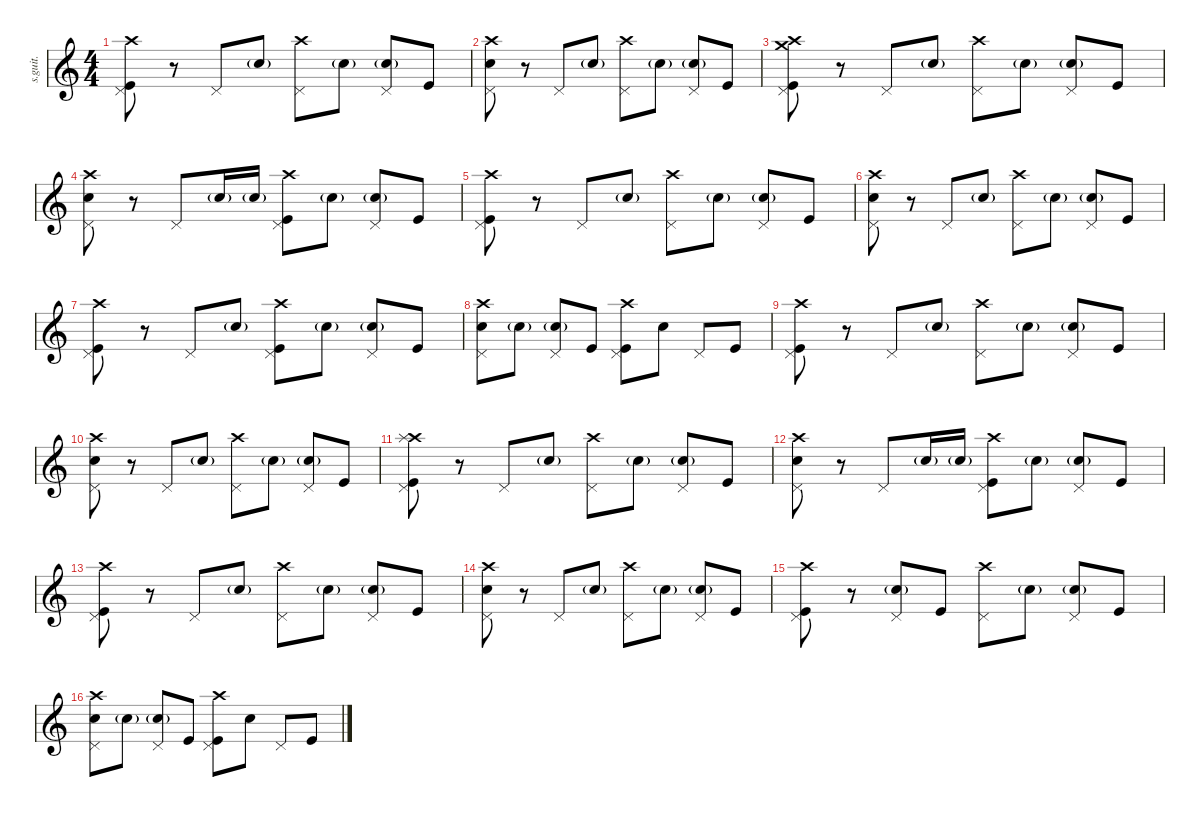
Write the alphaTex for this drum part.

\defaultSystemsLayout 4
\hideDynamics
\bracketExtendMode nobrackets
\track ("Matt Halpern" "s.guit.") {instrument percussion}
\staff {score}
\articulation defaults
\ts (4 4)
\tempo (213 hide)
\clef g2
\ks c
("Crash high (hit)" "Pedal Hi-Hat (hit)" "Kick (hit)").8{lyrics (0 "") lyrics (1 "") lyrics (2 "") lyrics (3 "") lyrics (4 "") dy mf} r.8 "Pedal Hi-Hat (hit)".8{lyrics (0 "") lyrics (1 "") lyrics (2 "") lyrics (3 "") lyrics (4 "")} "Snare (hit) 2"{g}.8{lyrics (0 "") lyrics (1 "") lyrics (2 "") lyrics (3 "") lyrics (4 "")} ("Crash high (hit)" "Pedal Hi-Hat (hit)").8{lyrics (0 "") lyrics (1 "") lyrics (2 "") lyrics (3 "") lyrics (4 "")} "Snare (hit) 2"{g}.8{lyrics (0 "") lyrics (1 "") lyrics (2 "") lyrics (3 "") lyrics (4 "")} ("Pedal Hi-Hat (hit)" "Snare (hit) 2"{g}).8{lyrics (0 "") lyrics (1 "") lyrics (2 "") lyrics (3 "") lyrics (4 "")} "Kick (hit)".8{lyrics (0 "") lyrics (1 "") lyrics (2 "") lyrics (3 "") lyrics (4 "")} |
("Crash high (hit)" "Pedal Hi-Hat (hit)" "Snare (hit) 2").8{lyrics (0 "") lyrics (1 "") lyrics (2 "") lyrics (3 "") lyrics (4 "")} r.8 "Pedal Hi-Hat (hit)".8{lyrics (0 "") lyrics (1 "") lyrics (2 "") lyrics (3 "") lyrics (4 "")} "Snare (hit) 2"{g}.8{lyrics (0 "") lyrics (1 "") lyrics (2 "") lyrics (3 "") lyrics (4 "")} ("Crash high (hit)" "Pedal Hi-Hat (hit)").8{lyrics (0 "") lyrics (1 "") lyrics (2 "") lyrics (3 "") lyrics (4 "")} "Snare (hit) 2"{g}.8{lyrics (0 "") lyrics (1 "") lyrics (2 "") lyrics (3 "") lyrics (4 "")} ("Pedal Hi-Hat (hit)" "Snare (hit) 2"{g}).8{lyrics (0 "") lyrics (1 "") lyrics (2 "") lyrics (3 "") lyrics (4 "")} "Kick (hit)".8{lyrics (0 "") lyrics (1 "") lyrics (2 "") lyrics (3 "") lyrics (4 "")} |
("Crash high (hit)" "Crash medium (hit)" "Pedal Hi-Hat (hit)" "Kick (hit)").8{lyrics (0 "") lyrics (1 "") lyrics (2 "") lyrics (3 "") lyrics (4 "")} r.8 "Pedal Hi-Hat (hit)".8{lyrics (0 "") lyrics (1 "") lyrics (2 "") lyrics (3 "") lyrics (4 "")} "Snare (hit) 2"{g}.8{lyrics (0 "") lyrics (1 "") lyrics (2 "") lyrics (3 "") lyrics (4 "")} ("Crash high (hit)" "Pedal Hi-Hat (hit)").8{lyrics (0 "") lyrics (1 "") lyrics (2 "") lyrics (3 "") lyrics (4 "")} "Snare (hit) 2"{g}.8{lyrics (0 "") lyrics (1 "") lyrics (2 "") lyrics (3 "") lyrics (4 "")} ("Pedal Hi-Hat (hit)" "Snare (hit) 2"{g}).8{lyrics (0 "") lyrics (1 "") lyrics (2 "") lyrics (3 "") lyrics (4 "")} "Kick (hit)".8{lyrics (0 "") lyrics (1 "") lyrics (2 "") lyrics (3 "") lyrics (4 "")} |
("Crash high (hit)" "Pedal Hi-Hat (hit)" "Snare (hit) 2").8{lyrics (0 "") lyrics (1 "") lyrics (2 "") lyrics (3 "") lyrics (4 "")} r.8 "Pedal Hi-Hat (hit)".8{lyrics (0 "") lyrics (1 "") lyrics (2 "") lyrics (3 "") lyrics (4 "")} "Snare (hit) 2"{g}.16{lyrics (0 "") lyrics (1 "") lyrics (2 "") lyrics (3 "") lyrics (4 "")} "Snare (hit) 2"{g}.16{lyrics (0 "") lyrics (1 "") lyrics (2 "") lyrics (3 "") lyrics (4 "")} ("Crash high (hit)" "Pedal Hi-Hat (hit)" "Kick (hit)").8{lyrics (0 "") lyrics (1 "") lyrics (2 "") lyrics (3 "") lyrics (4 "")} "Snare (hit) 2"{g}.8{lyrics (0 "") lyrics (1 "") lyrics (2 "") lyrics (3 "") lyrics (4 "")} ("Pedal Hi-Hat (hit)" "Snare (hit) 2"{g}).8{lyrics (0 "") lyrics (1 "") lyrics (2 "") lyrics (3 "") lyrics (4 "")} "Kick (hit)".8{lyrics (0 "") lyrics (1 "") lyrics (2 "") lyrics (3 "") lyrics (4 "")} |
("Crash high (hit)" "Pedal Hi-Hat (hit)" "Kick (hit)").8{lyrics (0 "") lyrics (1 "") lyrics (2 "") lyrics (3 "") lyrics (4 "")} r.8 "Pedal Hi-Hat (hit)".8{lyrics (0 "") lyrics (1 "") lyrics (2 "") lyrics (3 "") lyrics (4 "")} "Snare (hit) 2"{g}.8{lyrics (0 "") lyrics (1 "") lyrics (2 "") lyrics (3 "") lyrics (4 "")} ("Crash high (hit)" "Pedal Hi-Hat (hit)").8{lyrics (0 "") lyrics (1 "") lyrics (2 "") lyrics (3 "") lyrics (4 "")} "Snare (hit) 2"{g}.8{lyrics (0 "") lyrics (1 "") lyrics (2 "") lyrics (3 "") lyrics (4 "")} ("Pedal Hi-Hat (hit)" "Snare (hit) 2"{g}).8{lyrics (0 "") lyrics (1 "") lyrics (2 "") lyrics (3 "") lyrics (4 "")} "Kick (hit)".8{lyrics (0 "") lyrics (1 "") lyrics (2 "") lyrics (3 "") lyrics (4 "")} |
("Crash high (hit)" "Pedal Hi-Hat (hit)" "Snare (hit) 2").8{lyrics (0 "") lyrics (1 "") lyrics (2 "") lyrics (3 "") lyrics (4 "")} r.8 "Pedal Hi-Hat (hit)".8{lyrics (0 "") lyrics (1 "") lyrics (2 "") lyrics (3 "") lyrics (4 "")} "Snare (hit) 2"{g}.8{lyrics (0 "") lyrics (1 "") lyrics (2 "") lyrics (3 "") lyrics (4 "")} ("Crash high (hit)" "Pedal Hi-Hat (hit)").8{lyrics (0 "") lyrics (1 "") lyrics (2 "") lyrics (3 "") lyrics (4 "")} "Snare (hit) 2"{g}.8{lyrics (0 "") lyrics (1 "") lyrics (2 "") lyrics (3 "") lyrics (4 "")} ("Pedal Hi-Hat (hit)" "Snare (hit) 2"{g}).8{lyrics (0 "") lyrics (1 "") lyrics (2 "") lyrics (3 "") lyrics (4 "")} "Kick (hit)".8{lyrics (0 "") lyrics (1 "") lyrics (2 "") lyrics (3 "") lyrics (4 "")} |
("Crash high (hit)" "Pedal Hi-Hat (hit)" "Kick (hit)").8{lyrics (0 "") lyrics (1 "") lyrics (2 "") lyrics (3 "") lyrics (4 "")} r.8 "Pedal Hi-Hat (hit)".8{lyrics (0 "") lyrics (1 "") lyrics (2 "") lyrics (3 "") lyrics (4 "")} "Snare (hit) 2"{g}.8{lyrics (0 "") lyrics (1 "") lyrics (2 "") lyrics (3 "") lyrics (4 "")} ("Crash high (hit)" "Pedal Hi-Hat (hit)" "Kick (hit)").8{lyrics (0 "") lyrics (1 "") lyrics (2 "") lyrics (3 "") lyrics (4 "")} "Snare (hit) 2"{g}.8{lyrics (0 "") lyrics (1 "") lyrics (2 "") lyrics (3 "") lyrics (4 "")} ("Pedal Hi-Hat (hit)" "Snare (hit) 2"{g}).8{lyrics (0 "") lyrics (1 "") lyrics (2 "") lyrics (3 "") lyrics (4 "")} "Kick (hit)".8{lyrics (0 "") lyrics (1 "") lyrics (2 "") lyrics (3 "") lyrics (4 "")} |
("Crash high (hit)" "Pedal Hi-Hat (hit)" "Snare (hit) 2").8{lyrics (0 "") lyrics (1 "") lyrics (2 "") lyrics (3 "") lyrics (4 "")} "Snare (hit) 2"{g}.8{lyrics (0 "") lyrics (1 "") lyrics (2 "") lyrics (3 "") lyrics (4 "")} ("Pedal Hi-Hat (hit)" "Snare (hit) 2"{g}).8{lyrics (0 "") lyrics (1 "") lyrics (2 "") lyrics (3 "") lyrics (4 "")} "Kick (hit)".8{lyrics (0 "") lyrics (1 "") lyrics (2 "") lyrics (3 "") lyrics (4 "")} ("Crash high (hit)" "Pedal Hi-Hat (hit)" "Kick (hit)").8{lyrics (0 "") lyrics (1 "") lyrics (2 "") lyrics (3 "") lyrics (4 "")} "Snare (hit) 2".8{lyrics (0 "") lyrics (1 "") lyrics (2 "") lyrics (3 "") lyrics (4 "")} "Pedal Hi-Hat (hit)".8{lyrics (0 "") lyrics (1 "") lyrics (2 "") lyrics (3 "") lyrics (4 "")} "Kick (hit)".8{lyrics (0 "") lyrics (1 "") lyrics (2 "") lyrics (3 "") lyrics (4 "")} |
("Crash high (hit)" "Pedal Hi-Hat (hit)" "Kick (hit)").8{lyrics (0 "") lyrics (1 "") lyrics (2 "") lyrics (3 "") lyrics (4 "")} r.8 "Pedal Hi-Hat (hit)".8{lyrics (0 "") lyrics (1 "") lyrics (2 "") lyrics (3 "") lyrics (4 "")} "Snare (hit) 2"{g}.8{lyrics (0 "") lyrics (1 "") lyrics (2 "") lyrics (3 "") lyrics (4 "")} ("Crash high (hit)" "Pedal Hi-Hat (hit)").8{lyrics (0 "") lyrics (1 "") lyrics (2 "") lyrics (3 "") lyrics (4 "")} "Snare (hit) 2"{g}.8{lyrics (0 "") lyrics (1 "") lyrics (2 "") lyrics (3 "") lyrics (4 "")} ("Pedal Hi-Hat (hit)" "Snare (hit) 2"{g}).8{lyrics (0 "") lyrics (1 "") lyrics (2 "") lyrics (3 "") lyrics (4 "")} "Kick (hit)".8{lyrics (0 "") lyrics (1 "") lyrics (2 "") lyrics (3 "") lyrics (4 "")} |
("Crash high (hit)" "Pedal Hi-Hat (hit)" "Snare (hit) 2").8{lyrics (0 "") lyrics (1 "") lyrics (2 "") lyrics (3 "") lyrics (4 "")} r.8 "Pedal Hi-Hat (hit)".8{lyrics (0 "") lyrics (1 "") lyrics (2 "") lyrics (3 "") lyrics (4 "")} "Snare (hit) 2"{g}.8{lyrics (0 "") lyrics (1 "") lyrics (2 "") lyrics (3 "") lyrics (4 "")} ("Crash high (hit)" "Pedal Hi-Hat (hit)").8{lyrics (0 "") lyrics (1 "") lyrics (2 "") lyrics (3 "") lyrics (4 "")} "Snare (hit) 2"{g}.8{lyrics (0 "") lyrics (1 "") lyrics (2 "") lyrics (3 "") lyrics (4 "")} ("Pedal Hi-Hat (hit)" "Snare (hit) 2"{g}).8{lyrics (0 "") lyrics (1 "") lyrics (2 "") lyrics (3 "") lyrics (4 "")} "Kick (hit)".8{lyrics (0 "") lyrics (1 "") lyrics (2 "") lyrics (3 "") lyrics (4 "")} |
("Crash high (hit)" "Splash (hit)" "Pedal Hi-Hat (hit)" "Kick (hit)").8{lyrics (0 "") lyrics (1 "") lyrics (2 "") lyrics (3 "") lyrics (4 "")} r.8 "Pedal Hi-Hat (hit)".8{lyrics (0 "") lyrics (1 "") lyrics (2 "") lyrics (3 "") lyrics (4 "")} "Snare (hit) 2"{g}.8{lyrics (0 "") lyrics (1 "") lyrics (2 "") lyrics (3 "") lyrics (4 "")} ("Crash high (hit)" "Pedal Hi-Hat (hit)").8{lyrics (0 "") lyrics (1 "") lyrics (2 "") lyrics (3 "") lyrics (4 "")} "Snare (hit) 2"{g}.8{lyrics (0 "") lyrics (1 "") lyrics (2 "") lyrics (3 "") lyrics (4 "")} ("Pedal Hi-Hat (hit)" "Snare (hit) 2"{g}).8{lyrics (0 "") lyrics (1 "") lyrics (2 "") lyrics (3 "") lyrics (4 "")} "Kick (hit)".8{lyrics (0 "") lyrics (1 "") lyrics (2 "") lyrics (3 "") lyrics (4 "")} |
("Crash high (hit)" "Pedal Hi-Hat (hit)" "Snare (hit) 2").8{lyrics (0 "") lyrics (1 "") lyrics (2 "") lyrics (3 "") lyrics (4 "")} r.8 "Pedal Hi-Hat (hit)".8{lyrics (0 "") lyrics (1 "") lyrics (2 "") lyrics (3 "") lyrics (4 "")} "Snare (hit) 2"{g}.16{lyrics (0 "") lyrics (1 "") lyrics (2 "") lyrics (3 "") lyrics (4 "")} "Snare (hit) 2"{g}.16{lyrics (0 "") lyrics (1 "") lyrics (2 "") lyrics (3 "") lyrics (4 "")} ("Crash high (hit)" "Pedal Hi-Hat (hit)" "Kick (hit)").8{lyrics (0 "") lyrics (1 "") lyrics (2 "") lyrics (3 "") lyrics (4 "")} "Snare (hit) 2"{g}.8{lyrics (0 "") lyrics (1 "") lyrics (2 "") lyrics (3 "") lyrics (4 "")} ("Pedal Hi-Hat (hit)" "Snare (hit) 2"{g}).8{lyrics (0 "") lyrics (1 "") lyrics (2 "") lyrics (3 "") lyrics (4 "")} "Kick (hit)".8{lyrics (0 "") lyrics (1 "") lyrics (2 "") lyrics (3 "") lyrics (4 "")} |
("Crash high (hit)" "Pedal Hi-Hat (hit)" "Kick (hit)").8{lyrics (0 "") lyrics (1 "") lyrics (2 "") lyrics (3 "") lyrics (4 "")} r.8 "Pedal Hi-Hat (hit)".8{lyrics (0 "") lyrics (1 "") lyrics (2 "") lyrics (3 "") lyrics (4 "")} "Snare (hit) 2"{g}.8{lyrics (0 "") lyrics (1 "") lyrics (2 "") lyrics (3 "") lyrics (4 "")} ("Crash high (hit)" "Pedal Hi-Hat (hit)").8{lyrics (0 "") lyrics (1 "") lyrics (2 "") lyrics (3 "") lyrics (4 "")} "Snare (hit) 2"{g}.8{lyrics (0 "") lyrics (1 "") lyrics (2 "") lyrics (3 "") lyrics (4 "")} ("Pedal Hi-Hat (hit)" "Snare (hit) 2"{g}).8{lyrics (0 "") lyrics (1 "") lyrics (2 "") lyrics (3 "") lyrics (4 "")} "Kick (hit)".8{lyrics (0 "") lyrics (1 "") lyrics (2 "") lyrics (3 "") lyrics (4 "")} |
("Crash high (hit)" "Pedal Hi-Hat (hit)" "Snare (hit) 2").8{lyrics (0 "") lyrics (1 "") lyrics (2 "") lyrics (3 "") lyrics (4 "")} r.8 "Pedal Hi-Hat (hit)".8{lyrics (0 "") lyrics (1 "") lyrics (2 "") lyrics (3 "") lyrics (4 "")} "Snare (hit) 2"{g}.8{lyrics (0 "") lyrics (1 "") lyrics (2 "") lyrics (3 "") lyrics (4 "")} ("Crash high (hit)" "Pedal Hi-Hat (hit)").8{lyrics (0 "") lyrics (1 "") lyrics (2 "") lyrics (3 "") lyrics (4 "")} "Snare (hit) 2"{g}.8{lyrics (0 "") lyrics (1 "") lyrics (2 "") lyrics (3 "") lyrics (4 "")} ("Pedal Hi-Hat (hit)" "Snare (hit) 2"{g}).8{lyrics (0 "") lyrics (1 "") lyrics (2 "") lyrics (3 "") lyrics (4 "")} "Kick (hit)".8{lyrics (0 "") lyrics (1 "") lyrics (2 "") lyrics (3 "") lyrics (4 "")} |
("Crash high (hit)" "Pedal Hi-Hat (hit)" "Kick (hit)").8{lyrics (0 "") lyrics (1 "") lyrics (2 "") lyrics (3 "") lyrics (4 "")} r.8 ("Pedal Hi-Hat (hit)" "Snare (hit) 2"{g}).8{lyrics (0 "") lyrics (1 "") lyrics (2 "") lyrics (3 "") lyrics (4 "")} "Kick (hit)".8{lyrics (0 "") lyrics (1 "") lyrics (2 "") lyrics (3 "") lyrics (4 "")} ("Crash high (hit)" "Pedal Hi-Hat (hit)").8{lyrics (0 "") lyrics (1 "") lyrics (2 "") lyrics (3 "") lyrics (4 "")} "Snare (hit) 2"{g}.8{lyrics (0 "") lyrics (1 "") lyrics (2 "") lyrics (3 "") lyrics (4 "")} ("Pedal Hi-Hat (hit)" "Snare (hit) 2"{g}).8{lyrics (0 "") lyrics (1 "") lyrics (2 "") lyrics (3 "") lyrics (4 "")} "Kick (hit)".8{lyrics (0 "") lyrics (1 "") lyrics (2 "") lyrics (3 "") lyrics (4 "")} |
("Crash high (hit)" "Pedal Hi-Hat (hit)" "Snare (hit) 2").8{lyrics (0 "") lyrics (1 "") lyrics (2 "") lyrics (3 "") lyrics (4 "")} "Snare (hit) 2"{g}.8{lyrics (0 "") lyrics (1 "") lyrics (2 "") lyrics (3 "") lyrics (4 "")} ("Pedal Hi-Hat (hit)" "Snare (hit) 2"{g}).8{lyrics (0 "") lyrics (1 "") lyrics (2 "") lyrics (3 "") lyrics (4 "")} "Kick (hit)".8{lyrics (0 "") lyrics (1 "") lyrics (2 "") lyrics (3 "") lyrics (4 "")} ("Crash high (hit)" "Pedal Hi-Hat (hit)" "Kick (hit)").8{lyrics (0 "") lyrics (1 "") lyrics (2 "") lyrics (3 "") lyrics (4 "")} "Snare (hit) 2".8{lyrics (0 "") lyrics (1 "") lyrics (2 "") lyrics (3 "") lyrics (4 "")} "Pedal Hi-Hat (hit)".8{lyrics (0 "") lyrics (1 "") lyrics (2 "") lyrics (3 "") lyrics (4 "")} "Kick (hit)".8{lyrics (0 "") lyrics (1 "") lyrics (2 "") lyrics (3 "") lyrics (4 "")}
